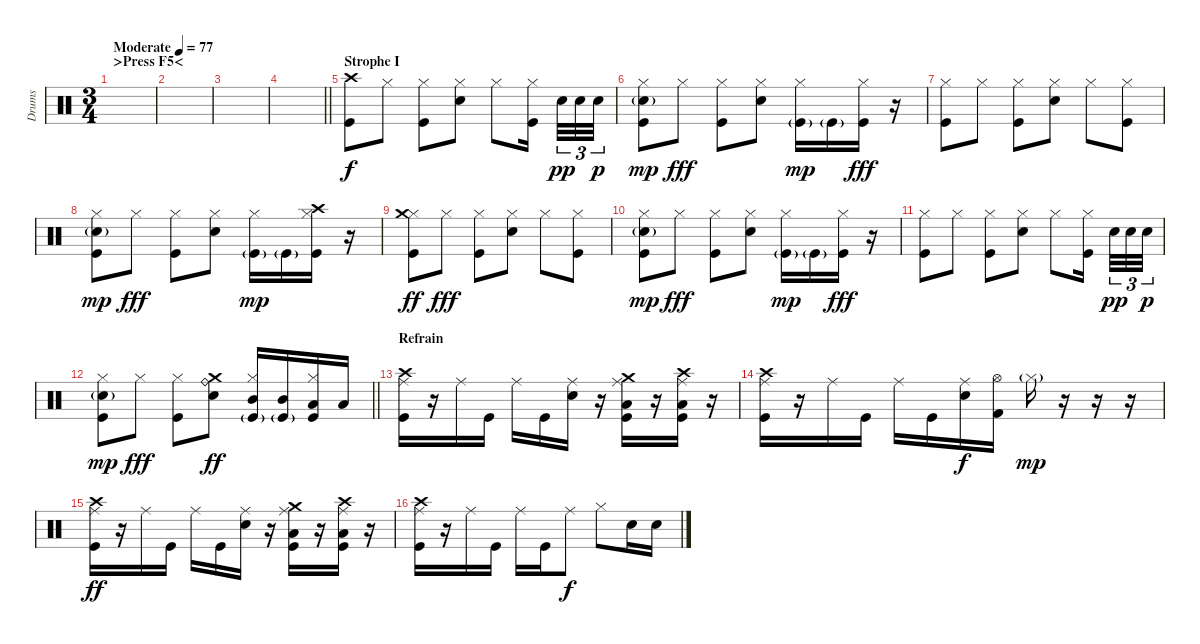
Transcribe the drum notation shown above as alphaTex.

\track ("Drums" "Drums") {instrument percussion}
\staff {score}
\articulation defaults
\ts (3 4)
\section ("" ">Press F5<")
\tempo (77 "Moderate")
\clef neutral
\ks c
|
|
|
\barLineRight lightlight
|
\section ("" "Strophe I")
("Crash high (hit)" "Kick (hit)").8 "Hi-Hat (closed)".8 ("Hi-Hat (closed)" "Kick (hit)").8 ("Hi-Hat (closed)" "Electric Snare (hit)").8 "Hi-Hat (closed)".8 ("Hi-Hat (closed)" "Kick (hit)").16{beam splitsecondary} "Electric Snare (hit)".32{tu (3 2) dy pp} "Electric Snare (hit)".32{tu (3 2)} "Electric Snare (hit)".32{tu (3 2) dy p} |
("Hi-Hat (closed)" "Kick (hit)" "Electric Snare (hit)"{g}).8{dy mp} "Hi-Hat (closed)".8{dy fff} ("Hi-Hat (closed)" "Kick (hit)").8 ("Hi-Hat (closed)" "Electric Snare (hit)").8 ("Hi-Hat (closed)" "Kick (hit)"{g}).16{dy mp} "Kick (hit)"{g}.16 ("Kick (hit)" "Hi-Hat (closed)").16{dy fff} r.16 |
("Hi-Hat (closed)" "Kick (hit)").8 "Hi-Hat (closed)".8 ("Hi-Hat (closed)" "Kick (hit)").8 ("Hi-Hat (closed)" "Electric Snare (hit)").8 "Hi-Hat (closed)".8 ("Hi-Hat (closed)" "Kick (hit)").8 |
("Hi-Hat (closed)" "Kick (hit)" "Electric Snare (hit)"{g}).8{dy mp} "Hi-Hat (closed)".8{dy fff} ("Hi-Hat (closed)" "Kick (hit)").8 ("Hi-Hat (closed)" "Electric Snare (hit)").8 ("Hi-Hat (closed)" "Kick (hit)"{g}).16{dy mp} "Kick (hit)"{g}.16 ("Kick (hit)" "Hi-Hat (closed)" "Crash high (hit)").16 r.16 |
("Hi-Hat (closed)" "Kick (hit)" "Crash medium (hit)").8{dy ff} "Hi-Hat (closed)".8{dy fff} ("Hi-Hat (closed)" "Kick (hit)").8 ("Hi-Hat (closed)" "Electric Snare (hit)").8 "Hi-Hat (closed)".8 ("Hi-Hat (closed)" "Kick (hit)").8 |
("Hi-Hat (closed)" "Kick (hit)" "Electric Snare (hit)"{g}).8{dy mp} "Hi-Hat (closed)".8{dy fff} ("Hi-Hat (closed)" "Kick (hit)").8 ("Hi-Hat (closed)" "Electric Snare (hit)").8 ("Hi-Hat (closed)" "Kick (hit)"{g}).16{dy mp} "Kick (hit)"{g}.16 ("Kick (hit)" "Hi-Hat (closed)").16{dy fff} r.16 |
("Hi-Hat (closed)" "Kick (hit)").8 "Hi-Hat (closed)".8 ("Hi-Hat (closed)" "Kick (hit)").8 ("Hi-Hat (closed)" "Electric Snare (hit)").8 "Hi-Hat (closed)".8 ("Hi-Hat (closed)" "Kick (hit)").16{beam splitsecondary} "Electric Snare (hit)".32{tu (3 2) dy pp} "Electric Snare (hit)".32{tu (3 2)} "Electric Snare (hit)".32{tu (3 2) dy p} |
\barLineRight lightlight
("Hi-Hat (closed)" "Kick (hit)" "Electric Snare (hit)"{g}).8{dy mp} "Hi-Hat (closed)".8{dy fff} ("Hi-Hat (closed)" "Kick (hit)").8 ("Crash medium (hit)" "Electric Snare (hit)" "Ride (bell)").8{dy ff} ("Hi-Hat (closed)" "Kick (hit)"{g} "Mid Tom (hit)").16 ("Kick (hit)"{g} "Mid Tom (hit)").16 ("Kick (hit)" "Hi-Hat (closed)" "Low Tom (hit)").16 "Low Floor Tom (hit)".16 |
\section ("" "Refrain")
("Crash high (hit)" "Ride (middle)" "Kick (hit)").16 r.16 "Ride (middle)".16 "Kick (hit)".16 "Ride (middle)".16 "Kick (hit)".16 ("Electric Snare (hit)" "Ride (middle)").16 r.16 ("Kick (hit)" "Low Tom (hit)" "Crash medium (hit)" "Ride (middle)").16 r.16 ("Low Floor Tom (hit)" "Kick (hit)" "Crash high (hit)" "Ride (middle)").16 r.16 |
("Crash high (hit)" "Ride (middle)" "Kick (hit)").16 r.16 "Ride (middle)".16 "Kick (hit)".16 "Ride (middle)".16 "Kick (hit)".16 ("Ride (middle)" "Electric Snare (hit)").16{dy f} ("Hi-Hat (open)" "Kick (hit) 2").16 "Hi-Hat (closed)"{g}.16{dy mp} r.16 r.16 r.16 |
("Crash high (hit)" "Ride (middle)" "Kick (hit)").16{dy ff} r.16 "Ride (middle)".16 "Kick (hit)".16 "Ride (middle)".16 "Kick (hit)".16 ("Electric Snare (hit)" "Ride (middle)").16 r.16 ("Kick (hit)" "Low Tom (hit)" "Crash medium (hit)" "Ride (middle)").16 r.16 ("Low Floor Tom (hit)" "Kick (hit)" "Crash high (hit)" "Ride (middle)").16 r.16 |
("Crash high (hit)" "Ride (middle)" "Kick (hit)").16 r.16 "Ride (middle)".16 "Kick (hit)".16 "Ride (middle)".16 "Kick (hit)".16 "Ride (middle)".8{dy f} "Hi-Hat (closed)".8 "Electric Snare (hit)".16 "Electric Snare (hit)".16
